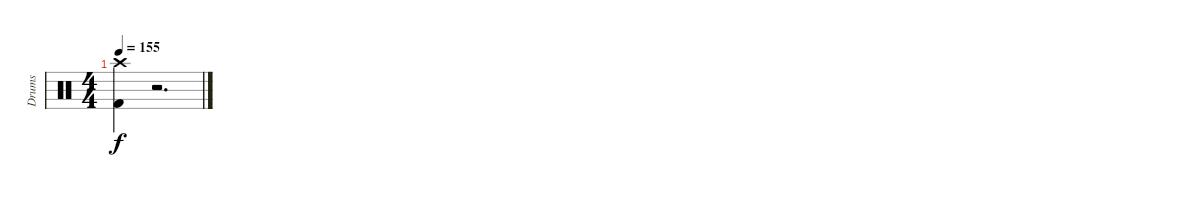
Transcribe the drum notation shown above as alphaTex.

\track ("Drums" "Drums") {instrument percussion}
\staff {score}
\articulation defaults
\ts (4 4)
\tempo 155
\clef neutral
\ks c
("Crash high (hit)" "Kick (hit) 2").4{dy f} r.2{d}
